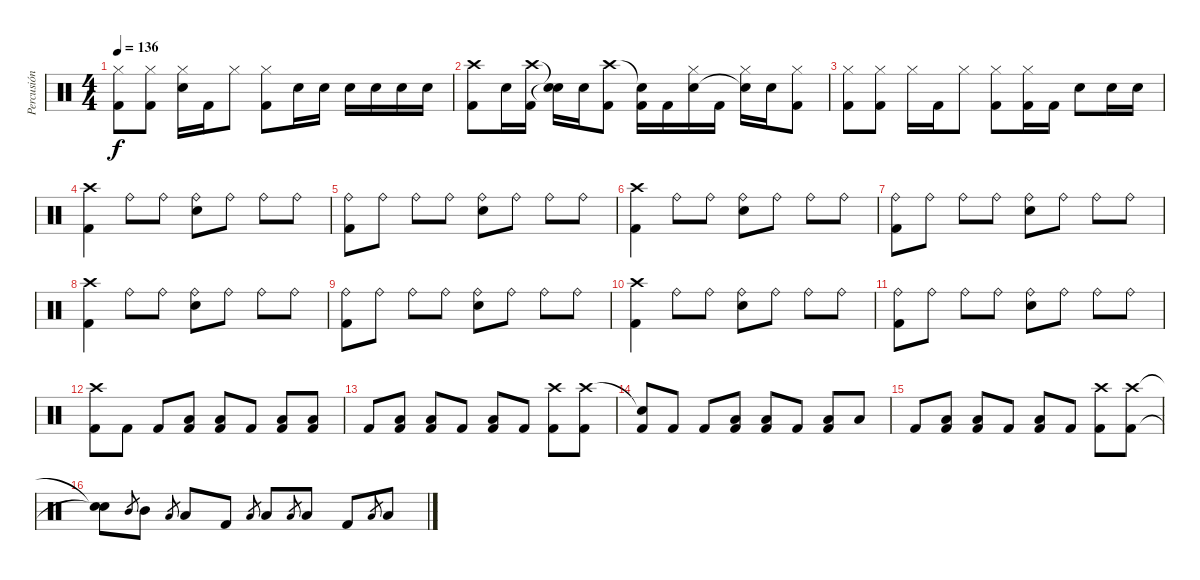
\track ("Percusión" "Percusión") {instrument percussion}
\staff {score}
\articulation defaults
\ts (4 4)
\tempo 136
\clef neutral
\ks c
("Hi-Hat (closed)" "Kick (hit) 2").8{dy f} ("Hi-Hat (closed)" "Kick (hit) 2").8 ("Hi-Hat (closed)" "Electric Snare (hit)").16 "Kick (hit) 2".16 "Hi-Hat (closed)".8 ("Hi-Hat (closed)" "Kick (hit) 2").8 "Electric Snare (hit)".16 "Electric Snare (hit)".16 "Electric Snare (hit)".16 "Electric Snare (hit)".16 "Electric Snare (hit)".16 "Electric Snare (hit)".16 |
("Crash high (hit)" "Kick (hit) 2").8 "Electric Snare (hit)".16 ("Crash high (hit)" "Kick (hit) 2").16 ("Snare (hit)"{t} "Snare (hit)"{t}).16 "Electric Snare (hit)".16 ("Crash high (hit)" "Kick (hit) 2").8 ("Snare (hit)"{t} "Kick (hit) 2").16 "Kick (hit) 2".16 ("Hi-Hat (closed)" "Electric Snare (hit)").16 "Kick (hit) 2".16 ("Hi-Hat (closed)" "Snare (hit)"{t}).16 "Electric Snare (hit)".16 ("Hi-Hat (closed)" "Kick (hit) 2").8 |
("Hi-Hat (closed)" "Kick (hit) 2").8 ("Hi-Hat (closed)" "Kick (hit) 2").8 "Hi-Hat (closed)".16 "Kick (hit) 2".16 "Hi-Hat (closed)".8 ("Hi-Hat (closed)" "Kick (hit) 2").8 ("Hi-Hat (closed)" "Kick (hit) 2").16 "Kick (hit) 2".16 "Electric Snare (hit)".8 "Electric Snare (hit)".16 "Electric Snare (hit)".16 |
("Crash high (hit)" "Kick (hit) 2").4 "Ride (bell)".8 "Ride (bell)".8 ("Ride (bell)" "Electric Snare (hit)").8 "Ride (bell)".8 "Ride (bell)".8 "Ride (bell)".8 |
("Ride (bell)" "Kick (hit) 2").8 "Ride (bell)".8 "Ride (bell)".8 "Ride (bell)".8 ("Ride (bell)" "Electric Snare (hit)").8 "Ride (bell)".8 "Ride (bell)".8 "Ride (bell)".8 |
("Crash high (hit)" "Kick (hit) 2").4 "Ride (bell)".8 "Ride (bell)".8 ("Ride (bell)" "Electric Snare (hit)").8 "Ride (bell)".8 "Ride (bell)".8 "Ride (bell)".8 |
("Ride (bell)" "Kick (hit) 2").8 "Ride (bell)".8 "Ride (bell)".8 "Ride (bell)".8 ("Ride (bell)" "Electric Snare (hit)").8 "Ride (bell)".8 "Ride (bell)".8 "Ride (bell)".8 |
("Crash high (hit)" "Kick (hit) 2").4 "Ride (bell)".8 "Ride (bell)".8 ("Ride (bell)" "Electric Snare (hit)").8 "Ride (bell)".8 "Ride (bell)".8 "Ride (bell)".8 |
("Ride (bell)" "Kick (hit) 2").8 "Ride (bell)".8 "Ride (bell)".8 "Ride (bell)".8 ("Ride (bell)" "Electric Snare (hit)").8 "Ride (bell)".8 "Ride (bell)".8 "Ride (bell)".8 |
("Crash high (hit)" "Kick (hit) 2").4 "Ride (bell)".8 "Ride (bell)".8 ("Ride (bell)" "Electric Snare (hit)").8 "Ride (bell)".8 "Ride (bell)".8 "Ride (bell)".8 |
("Ride (bell)" "Kick (hit) 2").8 "Ride (bell)".8 "Ride (bell)".8 "Ride (bell)".8 ("Ride (bell)" "Electric Snare (hit)").8 "Ride (bell)".8 "Ride (bell)".8 "Ride (bell)".8 |
("Crash high (hit)" "Kick (hit) 2").8 "Kick (hit) 2".8 "Kick (hit) 2".8 ("Low Tom (hit)" "Kick (hit) 2").8 ("Low Tom (hit)" "Kick (hit) 2").8 "Kick (hit) 2".8 ("Low Tom (hit)" "Kick (hit) 2").8 ("Low Tom (hit)" "Kick (hit) 2").8 |
"Kick (hit) 2".8 ("Low Tom (hit)" "Kick (hit) 2").8 ("Low Tom (hit)" "Kick (hit) 2").8 "Kick (hit) 2".8 ("Low Tom (hit)" "Kick (hit) 2").8 "Kick (hit) 2".8 ("Crash high (hit)" "Kick (hit) 2").8 ("Crash high (hit)" "Kick (hit) 2").8 |
("Snare (hit)"{t} "Kick (hit) 2").8 "Kick (hit) 2".8 "Kick (hit) 2".8 ("Low Tom (hit)" "Kick (hit) 2").8 ("Low Tom (hit)" "Kick (hit) 2").8 "Kick (hit) 2".8 ("Low Tom (hit)" "Kick (hit) 2").8 "Low Tom (hit)".8 |
"Kick (hit) 2".8 ("Low Tom (hit)" "Kick (hit) 2").8 ("Low Tom (hit)" "Kick (hit) 2").8 "Kick (hit) 2".8 ("Low Tom (hit)" "Kick (hit) 2").8 "Kick (hit) 2".8 ("Crash high (hit)" "Kick (hit) 2").8 ("Crash high (hit)" "Kick (hit) 2").8 |
("Snare (hit)"{t} "Snare (hit)"{t}).8 "Mid Tom (hit)".8{gr} "Mid Tom (hit)".8 "Low Tom (hit)".8{gr} "Low Tom (hit)".8 "Kick (hit) 2".8 "Low Tom (hit)".8{gr} "Low Tom (hit)".8 "Low Tom (hit)".8{gr} "Low Tom (hit)".8 "Kick (hit) 2".8 "Low Tom (hit)".8{gr} "Low Tom (hit)".8
